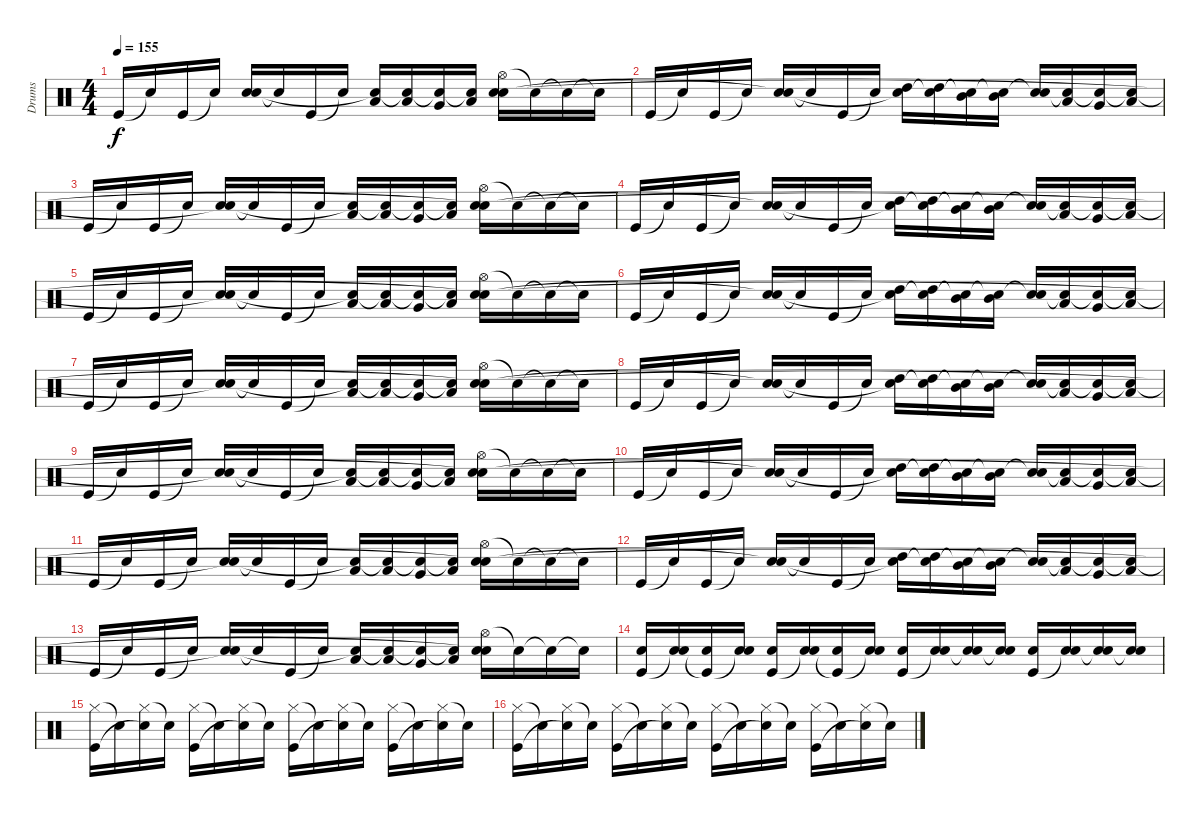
\track ("Drums" "Drums") {instrument percussion}
\staff {score}
\articulation defaults
\ts (4 4)
\tempo 155
\clef neutral
\ks c "Kick (hit)".16{dy f} "Snare (hit)"{t}.16 "Kick (hit)".16 "Snare (hit)"{t}.16
("Electric Snare (hit)" "Snare (hit)"{t}).16 "Snare (hit)"{t}.16 "Kick (hit)".16 "Snare (hit)"{t}.16 ("Low Tom (hit)" "Snare (hit)"{t}).16 ("Low Tom (hit)" "Snare (hit)"{t}).16 ("Very Low Tom (hit)" "Snare (hit)"{t}).16 ("Low Floor Tom (hit)" "Snare (hit)"{t}).16 ("Hi-Hat (open)" "Electric Snare (hit)" "Snare (hit)"{t}).16 "Snare (hit)"{t}.16 "Snare (hit)"{t}.16 "Snare (hit)"{t}.16 |
"Kick (hit)".16 "Snare (hit)"{t}.16 "Kick (hit)".16 "Snare (hit)"{t}.16 ("Electric Snare (hit)" "Snare (hit)"{t}).16 "Snare (hit)"{t}.16 "Kick (hit)".16 "Snare (hit)"{t}.16 ("High Tom (hit)" "Snare (hit)"{t}).16 ("High Tom (hit)" "Snare (hit)"{t}).16 ("Mid Tom (hit)" "Snare (hit)"{t}).16 ("Mid Tom (hit)" "Snare (hit)"{t}).16 ("Electric Snare (hit)" "Snare (hit)"{t}).16 ("Low Tom (hit)" "Snare (hit)"{t}).16 ("Very Low Tom (hit)" "Snare (hit)"{t}).16 ("Low Floor Tom (hit)" "Snare (hit)"{t}).16 |
"Kick (hit)".16 "Snare (hit)"{t}.16 "Kick (hit)".16 "Snare (hit)"{t}.16 ("Electric Snare (hit)" "Snare (hit)"{t}).16 "Snare (hit)"{t}.16 "Kick (hit)".16 "Snare (hit)"{t}.16 ("Low Tom (hit)" "Snare (hit)"{t}).16 ("Low Tom (hit)" "Snare (hit)"{t}).16 ("Very Low Tom (hit)" "Snare (hit)"{t}).16 ("Low Floor Tom (hit)" "Snare (hit)"{t}).16 ("Hi-Hat (open)" "Electric Snare (hit)" "Snare (hit)"{t}).16 "Snare (hit)"{t}.16 "Snare (hit)"{t}.16 "Snare (hit)"{t}.16 |
"Kick (hit)".16 "Snare (hit)"{t}.16 "Kick (hit)".16 "Snare (hit)"{t}.16 ("Electric Snare (hit)" "Snare (hit)"{t}).16 "Snare (hit)"{t}.16 "Kick (hit)".16 "Snare (hit)"{t}.16 ("High Tom (hit)" "Snare (hit)"{t}).16 ("High Tom (hit)" "Snare (hit)"{t}).16 ("Mid Tom (hit)" "Snare (hit)"{t}).16 ("Mid Tom (hit)" "Snare (hit)"{t}).16 ("Electric Snare (hit)" "Snare (hit)"{t}).16 ("Low Tom (hit)" "Snare (hit)"{t}).16 ("Very Low Tom (hit)" "Snare (hit)"{t}).16 ("Low Floor Tom (hit)" "Snare (hit)"{t}).16 |
"Kick (hit)".16 "Snare (hit)"{t}.16 "Kick (hit)".16 "Snare (hit)"{t}.16 ("Electric Snare (hit)" "Snare (hit)"{t}).16 "Snare (hit)"{t}.16 "Kick (hit)".16 "Snare (hit)"{t}.16 ("Low Tom (hit)" "Snare (hit)"{t}).16 ("Low Tom (hit)" "Snare (hit)"{t}).16 ("Very Low Tom (hit)" "Snare (hit)"{t}).16 ("Low Floor Tom (hit)" "Snare (hit)"{t}).16 ("Hi-Hat (open)" "Electric Snare (hit)" "Snare (hit)"{t}).16 "Snare (hit)"{t}.16 "Snare (hit)"{t}.16 "Snare (hit)"{t}.16 |
"Kick (hit)".16 "Snare (hit)"{t}.16 "Kick (hit)".16 "Snare (hit)"{t}.16 ("Electric Snare (hit)" "Snare (hit)"{t}).16 "Snare (hit)"{t}.16 "Kick (hit)".16 "Snare (hit)"{t}.16 ("High Tom (hit)" "Snare (hit)"{t}).16 ("High Tom (hit)" "Snare (hit)"{t}).16 ("Mid Tom (hit)" "Snare (hit)"{t}).16 ("Mid Tom (hit)" "Snare (hit)"{t}).16 ("Electric Snare (hit)" "Snare (hit)"{t}).16 ("Low Tom (hit)" "Snare (hit)"{t}).16 ("Very Low Tom (hit)" "Snare (hit)"{t}).16 ("Low Floor Tom (hit)" "Snare (hit)"{t}).16 |
"Kick (hit)".16 "Snare (hit)"{t}.16 "Kick (hit)".16 "Snare (hit)"{t}.16 ("Electric Snare (hit)" "Snare (hit)"{t}).16 "Snare (hit)"{t}.16 "Kick (hit)".16 "Snare (hit)"{t}.16 ("Low Tom (hit)" "Snare (hit)"{t}).16 ("Low Tom (hit)" "Snare (hit)"{t}).16 ("Very Low Tom (hit)" "Snare (hit)"{t}).16 ("Low Floor Tom (hit)" "Snare (hit)"{t}).16 ("Hi-Hat (open)" "Electric Snare (hit)" "Snare (hit)"{t}).16 "Snare (hit)"{t}.16 "Snare (hit)"{t}.16 "Snare (hit)"{t}.16 |
"Kick (hit)".16 "Snare (hit)"{t}.16 "Kick (hit)".16 "Snare (hit)"{t}.16 ("Electric Snare (hit)" "Snare (hit)"{t}).16 "Snare (hit)"{t}.16 "Kick (hit)".16 "Snare (hit)"{t}.16 ("High Tom (hit)" "Snare (hit)"{t}).16 ("High Tom (hit)" "Snare (hit)"{t}).16 ("Mid Tom (hit)" "Snare (hit)"{t}).16 ("Mid Tom (hit)" "Snare (hit)"{t}).16 ("Electric Snare (hit)" "Snare (hit)"{t}).16 ("Low Tom (hit)" "Snare (hit)"{t}).16 ("Very Low Tom (hit)" "Snare (hit)"{t}).16 ("Low Floor Tom (hit)" "Snare (hit)"{t}).16 |
"Kick (hit)".16 "Snare (hit)"{t}.16 "Kick (hit)".16 "Snare (hit)"{t}.16 ("Electric Snare (hit)" "Snare (hit)"{t}).16 "Snare (hit)"{t}.16 "Kick (hit)".16 "Snare (hit)"{t}.16 ("Low Tom (hit)" "Snare (hit)"{t}).16 ("Low Tom (hit)" "Snare (hit)"{t}).16 ("Very Low Tom (hit)" "Snare (hit)"{t}).16 ("Low Floor Tom (hit)" "Snare (hit)"{t}).16 ("Hi-Hat (open)" "Electric Snare (hit)" "Snare (hit)"{t}).16 "Snare (hit)"{t}.16 "Snare (hit)"{t}.16 "Snare (hit)"{t}.16 |
"Kick (hit)".16 "Snare (hit)"{t}.16 "Kick (hit)".16 "Snare (hit)"{t}.16 ("Electric Snare (hit)" "Snare (hit)"{t}).16 "Snare (hit)"{t}.16 "Kick (hit)".16 "Snare (hit)"{t}.16 ("High Tom (hit)" "Snare (hit)"{t}).16 ("High Tom (hit)" "Snare (hit)"{t}).16 ("Mid Tom (hit)" "Snare (hit)"{t}).16 ("Mid Tom (hit)" "Snare (hit)"{t}).16 ("Electric Snare (hit)" "Snare (hit)"{t}).16 ("Low Tom (hit)" "Snare (hit)"{t}).16 ("Very Low Tom (hit)" "Snare (hit)"{t}).16 ("Low Floor Tom (hit)" "Snare (hit)"{t}).16 |
"Kick (hit)".16 "Snare (hit)"{t}.16 "Kick (hit)".16 "Snare (hit)"{t}.16 ("Electric Snare (hit)" "Snare (hit)"{t}).16 "Snare (hit)"{t}.16 "Kick (hit)".16 "Snare (hit)"{t}.16 ("Low Tom (hit)" "Snare (hit)"{t}).16 ("Low Tom (hit)" "Snare (hit)"{t}).16 ("Very Low Tom (hit)" "Snare (hit)"{t}).16 ("Low Floor Tom (hit)" "Snare (hit)"{t}).16 ("Hi-Hat (open)" "Electric Snare (hit)" "Snare (hit)"{t}).16 "Snare (hit)"{t}.16 "Snare (hit)"{t}.16 "Snare (hit)"{t}.16 |
"Kick (hit)".16 "Snare (hit)"{t}.16 "Kick (hit)".16 "Snare (hit)"{t}.16 ("Electric Snare (hit)" "Snare (hit)"{t}).16 "Snare (hit)"{t}.16 "Kick (hit)".16 "Snare (hit)"{t}.16 ("High Tom (hit)" "Snare (hit)"{t}).16 ("High Tom (hit)" "Snare (hit)"{t}).16 ("Mid Tom (hit)" "Snare (hit)"{t}).16 ("Mid Tom (hit)" "Snare (hit)"{t}).16 ("Electric Snare (hit)" "Snare (hit)"{t}).16 ("Low Tom (hit)" "Snare (hit)"{t}).16 ("Very Low Tom (hit)" "Snare (hit)"{t}).16 ("Low Floor Tom (hit)" "Snare (hit)"{t}).16 |
"Kick (hit)".16 "Snare (hit)"{t}.16 "Kick (hit)".16 "Snare (hit)"{t}.16 ("Electric Snare (hit)" "Snare (hit)"{t}).16 "Snare (hit)"{t}.16 "Kick (hit)".16 "Snare (hit)"{t}.16 ("Low Tom (hit)" "Snare (hit)"{t}).16 ("Low Tom (hit)" "Snare (hit)"{t}).16 ("Very Low Tom (hit)" "Snare (hit)"{t}).16 ("Low Floor Tom (hit)" "Snare (hit)"{t}).16 ("Hi-Hat (open)" "Electric Snare (hit)" "Snare (hit)"{t}).16 "Snare (hit)"{t}.16 "Snare (hit)"{t}.16 "Snare (hit)"{t}.16 |
("Electric Snare (hit)" "Kick (hit)").16{volume 3} ("Electric Snare (hit)" "Snare (hit)"{t}).16{volume 16} ("Electric Snare (hit)" "Kick (hit)"{t}).16 ("Electric Snare (hit)" "Snare (hit)"{t}).16 ("Electric Snare (hit)" "Kick (hit)").16 ("Electric Snare (hit)" "Snare (hit)"{t}).16 ("Electric Snare (hit)" "Kick (hit)"{t}).16 ("Electric Snare (hit)" "Snare (hit)"{t}).16 ("Electric Snare (hit)" "Kick (hit)").16 ("Electric Snare (hit)" "Snare (hit)"{t}).16 ("Electric Snare (hit)" "Snare (hit)"{t}).16 ("Electric Snare (hit)" "Snare (hit)"{t}).16 ("Electric Snare (hit)" "Kick (hit)").16 ("Electric Snare (hit)" "Snare (hit)"{t}).16 ("Electric Snare (hit)" "Snare (hit)"{t}).16 ("Electric Snare (hit)" "Snare (hit)"{t}).16 |
("Hi-Hat (closed)" "Kick (hit)").16 "Snare (hit)"{t}.16 ("Hi-Hat (closed)" "Snare (hit)"{t}).16 "Snare (hit)"{t}.16 ("Hi-Hat (closed)" "Kick (hit)").16 "Snare (hit)"{t}.16 ("Hi-Hat (closed)" "Snare (hit)"{t}).16 "Snare (hit)"{t}.16 ("Hi-Hat (closed)" "Kick (hit)").16 "Snare (hit)"{t}.16 ("Hi-Hat (closed)" "Snare (hit)"{t}).16 "Snare (hit)"{t}.16 ("Hi-Hat (closed)" "Kick (hit)").16 "Snare (hit)"{t}.16 ("Hi-Hat (closed)" "Snare (hit)"{t}).16 "Snare (hit)"{t}.16 |
("Hi-Hat (closed)" "Kick (hit)").16 "Snare (hit)"{t}.16 ("Hi-Hat (closed)" "Snare (hit)"{t}).16 "Snare (hit)"{t}.16 ("Hi-Hat (closed)" "Kick (hit)").16 "Snare (hit)"{t}.16 ("Hi-Hat (closed)" "Snare (hit)"{t}).16 "Snare (hit)"{t}.16 ("Hi-Hat (closed)" "Kick (hit)").16 "Snare (hit)"{t}.16 ("Hi-Hat (closed)" "Snare (hit)"{t}).16 "Snare (hit)"{t}.16 ("Hi-Hat (closed)" "Kick (hit)").16 "Snare (hit)"{t}.16 ("Hi-Hat (closed)" "Snare (hit)"{t}).16 "Snare (hit)"{t}.16
